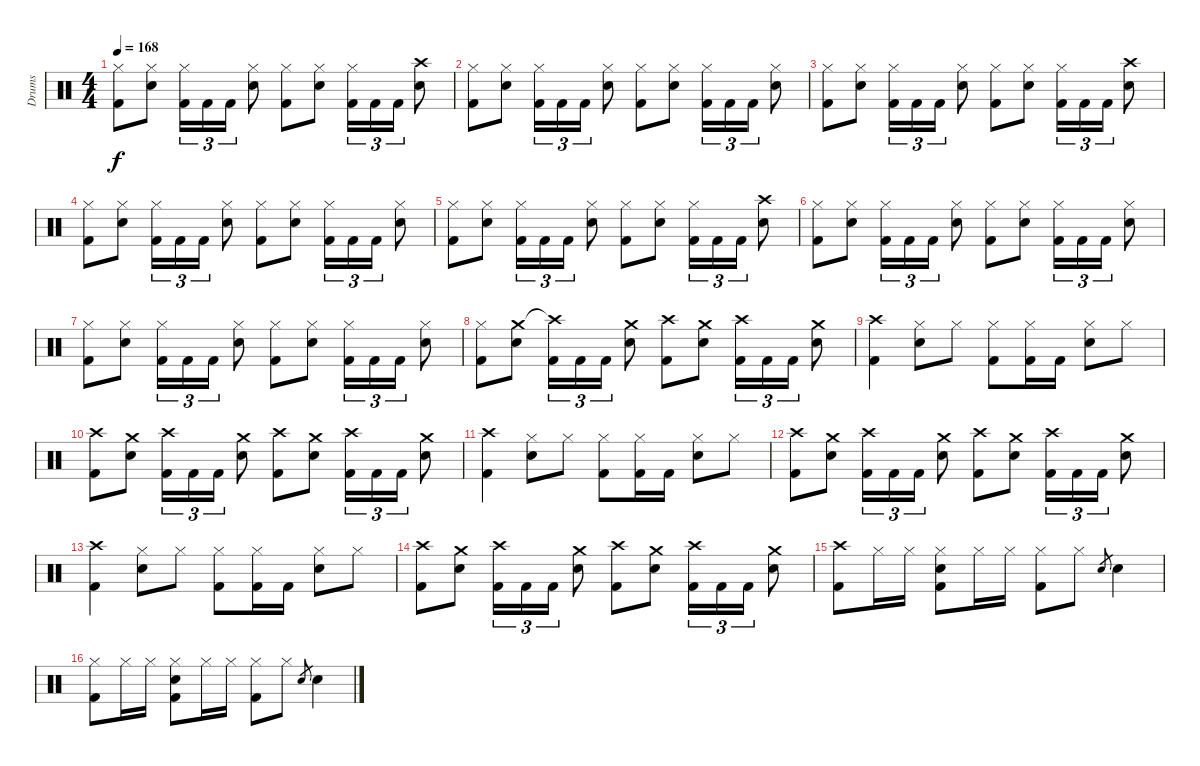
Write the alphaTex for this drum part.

\track ("Drums" "Drums") {instrument percussion}
\staff {score}
\articulation defaults
\ts (4 4)
\tempo 168
\clef neutral
\ks c
("Hi-Hat (closed)" "Kick (hit) 2").8{dy f} ("Hi-Hat (closed)" "Snare (hit) 2").8 ("Hi-Hat (closed)" "Kick (hit) 2").16{tu (3 2)} "Kick (hit) 2".16{tu (3 2)} "Kick (hit) 2".16{tu (3 2)} ("Hi-Hat (closed)" "Snare (hit) 2").8 ("Hi-Hat (closed)" "Kick (hit) 2").8 ("Hi-Hat (closed)" "Snare (hit) 2").8 ("Hi-Hat (closed)" "Kick (hit) 2").16{tu (3 2)} "Kick (hit) 2".16{tu (3 2)} "Kick (hit) 2".16{tu (3 2)} ("Crash high (hit)" "Snare (hit) 2").8 |
("Hi-Hat (closed)" "Kick (hit) 2").8 ("Hi-Hat (closed)" "Snare (hit) 2").8 ("Hi-Hat (closed)" "Kick (hit) 2").16{tu (3 2)} "Kick (hit) 2".16{tu (3 2)} "Kick (hit) 2".16{tu (3 2)} ("Hi-Hat (closed)" "Snare (hit) 2").8 ("Hi-Hat (closed)" "Kick (hit) 2").8 ("Hi-Hat (closed)" "Snare (hit) 2").8 ("Hi-Hat (closed)" "Kick (hit) 2").16{tu (3 2)} "Kick (hit) 2".16{tu (3 2)} "Kick (hit) 2".16{tu (3 2)} ("Hi-Hat (closed)" "Snare (hit) 2").8 |
("Hi-Hat (closed)" "Kick (hit) 2").8 ("Hi-Hat (closed)" "Snare (hit) 2").8 ("Hi-Hat (closed)" "Kick (hit) 2").16{tu (3 2)} "Kick (hit) 2".16{tu (3 2)} "Kick (hit) 2".16{tu (3 2)} ("Hi-Hat (closed)" "Snare (hit) 2").8 ("Hi-Hat (closed)" "Kick (hit) 2").8 ("Hi-Hat (closed)" "Snare (hit) 2").8 ("Hi-Hat (closed)" "Kick (hit) 2").16{tu (3 2)} "Kick (hit) 2".16{tu (3 2)} "Kick (hit) 2".16{tu (3 2)} ("Crash high (hit)" "Snare (hit) 2").8 |
("Hi-Hat (closed)" "Kick (hit) 2").8 ("Hi-Hat (closed)" "Snare (hit) 2").8 ("Hi-Hat (closed)" "Kick (hit) 2").16{tu (3 2)} "Kick (hit) 2".16{tu (3 2)} "Kick (hit) 2".16{tu (3 2)} ("Hi-Hat (closed)" "Snare (hit) 2").8 ("Hi-Hat (closed)" "Kick (hit) 2").8 ("Hi-Hat (closed)" "Snare (hit) 2").8 ("Hi-Hat (closed)" "Kick (hit) 2").16{tu (3 2)} "Kick (hit) 2".16{tu (3 2)} "Kick (hit) 2".16{tu (3 2)} ("Hi-Hat (closed)" "Snare (hit) 2").8 |
("Hi-Hat (closed)" "Kick (hit) 2").8 ("Hi-Hat (closed)" "Snare (hit) 2").8 ("Hi-Hat (closed)" "Kick (hit) 2").16{tu (3 2)} "Kick (hit) 2".16{tu (3 2)} "Kick (hit) 2".16{tu (3 2)} ("Hi-Hat (closed)" "Snare (hit) 2").8 ("Hi-Hat (closed)" "Kick (hit) 2").8 ("Hi-Hat (closed)" "Snare (hit) 2").8 ("Hi-Hat (closed)" "Kick (hit) 2").16{tu (3 2)} "Kick (hit) 2".16{tu (3 2)} "Kick (hit) 2".16{tu (3 2)} ("Crash high (hit)" "Snare (hit) 2").8 |
("Hi-Hat (closed)" "Kick (hit) 2").8 ("Hi-Hat (closed)" "Snare (hit) 2").8 ("Hi-Hat (closed)" "Kick (hit) 2").16{tu (3 2)} "Kick (hit) 2".16{tu (3 2)} "Kick (hit) 2".16{tu (3 2)} ("Hi-Hat (closed)" "Snare (hit) 2").8 ("Hi-Hat (closed)" "Kick (hit) 2").8 ("Hi-Hat (closed)" "Snare (hit) 2").8 ("Hi-Hat (closed)" "Kick (hit) 2").16{tu (3 2)} "Kick (hit) 2".16{tu (3 2)} "Kick (hit) 2".16{tu (3 2)} ("Hi-Hat (closed)" "Snare (hit) 2").8 |
("Hi-Hat (closed)" "Kick (hit) 2").8 ("Hi-Hat (closed)" "Snare (hit) 2").8 ("Hi-Hat (closed)" "Kick (hit) 2").16{tu (3 2)} "Kick (hit) 2".16{tu (3 2)} "Kick (hit) 2".16{tu (3 2)} ("Hi-Hat (closed)" "Snare (hit) 2").8 ("Hi-Hat (closed)" "Kick (hit) 2").8 ("Hi-Hat (closed)" "Snare (hit) 2").8 ("Hi-Hat (closed)" "Kick (hit) 2").16{tu (3 2)} "Kick (hit) 2".16{tu (3 2)} "Kick (hit) 2".16{tu (3 2)} ("Hi-Hat (closed)" "Snare (hit) 2").8 |
("Hi-Hat (closed)" "Kick (hit) 2").8 ("Crash medium (hit)" "Snare (hit) 2").8 ("Crash high (hit)"{t} "Kick (hit) 2").16{tu (3 2)} "Kick (hit) 2".16{tu (3 2)} "Kick (hit) 2".16{tu (3 2)} ("Crash medium (hit)" "Snare (hit) 2").8 ("Crash high (hit)" "Kick (hit) 2").8 ("Crash medium (hit)" "Snare (hit) 2").8 ("Crash high (hit)" "Kick (hit) 2").16{tu (3 2)} "Kick (hit) 2".16{tu (3 2)} "Kick (hit) 2".16{tu (3 2)} ("Crash medium (hit)" "Snare (hit) 2").8 |
("Crash high (hit)" "Kick (hit) 2").4 ("Hi-Hat (closed)" "Snare (hit) 2").8 "Hi-Hat (closed)".8 ("Hi-Hat (closed)" "Kick (hit) 2").8 ("Hi-Hat (closed)" "Kick (hit) 2").16 "Kick (hit) 2".16 ("Hi-Hat (closed)" "Snare (hit) 2").8 "Hi-Hat (closed)".8 |
("Crash high (hit)" "Kick (hit) 2").8 ("Crash medium (hit)" "Snare (hit) 2").8 ("Crash high (hit)" "Kick (hit) 2").16{tu (3 2)} "Kick (hit) 2".16{tu (3 2)} "Kick (hit) 2".16{tu (3 2)} ("Crash medium (hit)" "Snare (hit) 2").8 ("Crash high (hit)" "Kick (hit) 2").8 ("Crash medium (hit)" "Snare (hit) 2").8 ("Crash high (hit)" "Kick (hit) 2").16{tu (3 2)} "Kick (hit) 2".16{tu (3 2)} "Kick (hit) 2".16{tu (3 2)} ("Crash medium (hit)" "Snare (hit) 2").8 |
("Crash high (hit)" "Kick (hit) 2").4 ("Hi-Hat (closed)" "Snare (hit) 2").8 "Hi-Hat (closed)".8 ("Hi-Hat (closed)" "Kick (hit) 2").8 ("Hi-Hat (closed)" "Kick (hit) 2").16 "Kick (hit) 2".16 ("Hi-Hat (closed)" "Snare (hit) 2").8 "Hi-Hat (closed)".8 |
("Crash high (hit)" "Kick (hit) 2").8 ("Crash medium (hit)" "Snare (hit) 2").8 ("Crash high (hit)" "Kick (hit) 2").16{tu (3 2)} "Kick (hit) 2".16{tu (3 2)} "Kick (hit) 2".16{tu (3 2)} ("Crash medium (hit)" "Snare (hit) 2").8 ("Crash high (hit)" "Kick (hit) 2").8 ("Crash medium (hit)" "Snare (hit) 2").8 ("Crash high (hit)" "Kick (hit) 2").16{tu (3 2)} "Kick (hit) 2".16{tu (3 2)} "Kick (hit) 2".16{tu (3 2)} ("Crash medium (hit)" "Snare (hit) 2").8 |
("Crash high (hit)" "Kick (hit) 2").4 ("Hi-Hat (closed)" "Snare (hit) 2").8 "Hi-Hat (closed)".8 ("Hi-Hat (closed)" "Kick (hit) 2").8 ("Hi-Hat (closed)" "Kick (hit) 2").16 "Kick (hit) 2".16 ("Hi-Hat (closed)" "Snare (hit) 2").8 "Hi-Hat (closed)".8 |
("Crash high (hit)" "Kick (hit) 2").8 ("Crash medium (hit)" "Snare (hit) 2").8 ("Crash high (hit)" "Kick (hit) 2").16{tu (3 2)} "Kick (hit) 2".16{tu (3 2)} "Kick (hit) 2".16{tu (3 2)} ("Crash medium (hit)" "Snare (hit) 2").8 ("Crash high (hit)" "Kick (hit) 2").8 ("Crash medium (hit)" "Snare (hit) 2").8 ("Crash high (hit)" "Kick (hit) 2").16{tu (3 2)} "Kick (hit) 2".16{tu (3 2)} "Kick (hit) 2".16{tu (3 2)} ("Crash medium (hit)" "Snare (hit) 2").8 |
("Crash high (hit)" "Kick (hit) 2").8 "Hi-Hat (closed)".16 "Hi-Hat (closed)".16 ("Hi-Hat (closed)" "Snare (hit) 2" "Kick (hit) 2").8 "Hi-Hat (closed)".16 "Hi-Hat (closed)".16 ("Hi-Hat (closed)" "Kick (hit) 2").8 "Hi-Hat (closed)".8 "Snare (hit) 2".8{gr} "Snare (hit) 2".4 |
("Hi-Hat (closed)" "Kick (hit) 2").8 "Hi-Hat (closed)".16 "Hi-Hat (closed)".16 ("Hi-Hat (closed)" "Snare (hit) 2" "Kick (hit) 2").8 "Hi-Hat (closed)".16 "Hi-Hat (closed)".16 ("Hi-Hat (closed)" "Kick (hit) 2").8 "Hi-Hat (closed)".8 "Snare (hit) 2".8{gr} "Snare (hit) 2".4
